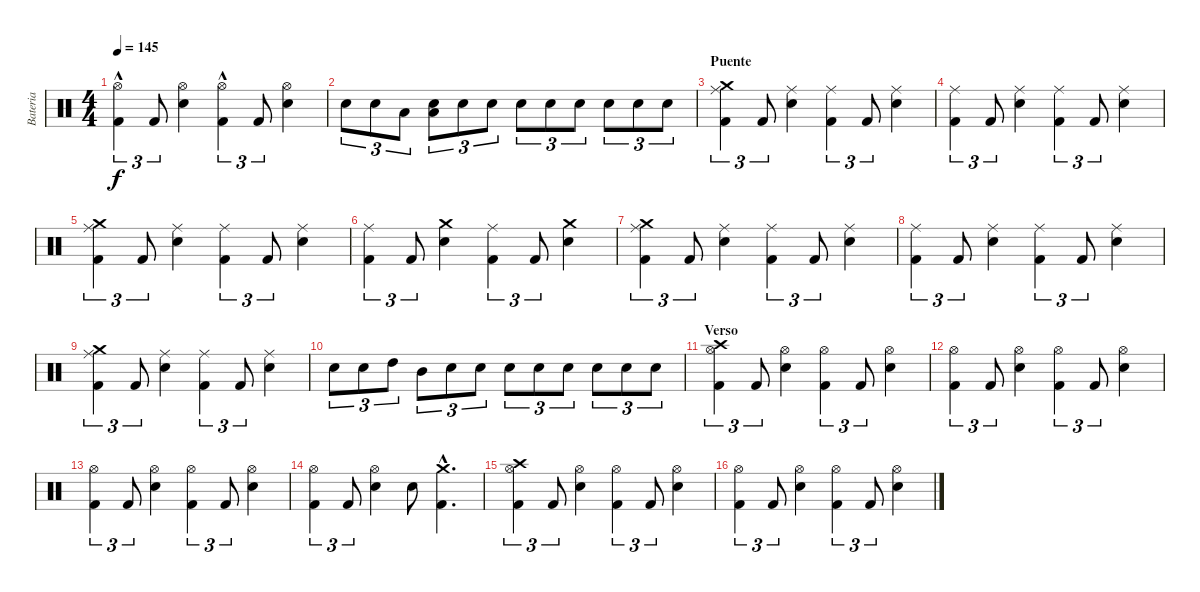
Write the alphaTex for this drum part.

\track ("Bateria" "Bateria") {instrument percussion}
\staff {score}
\articulation defaults
\ts (4 4)
\tempo 145
\clef neutral
\ks c
("Hi-Hat (open)"{hac} "Kick (hit) 2").4{tu (3 2) dy f} "Kick (hit) 2".8{tu (3 2)} ("Hi-Hat (open)" "Snare (hit) 2").4 ("Hi-Hat (open)"{hac} "Kick (hit) 2").4{tu (3 2)} "Kick (hit) 2".8{tu (3 2)} ("Hi-Hat (open)" "Snare (hit) 2").4 |
"Snare (hit) 2".8{tu (3 2)} "Snare (hit) 2".8{tu (3 2)} "Low Tom (hit)".8{tu (3 2)} ("Snare (hit) 2" "Low Tom (hit)").8{tu (3 2)} "Snare (hit) 2".8{tu (3 2)} "Snare (hit) 2".8{tu (3 2)} "Snare (hit) 2".8{tu (3 2)} "Snare (hit) 2".8{tu (3 2)} "Snare (hit) 2".8{tu (3 2)} "Snare (hit) 2".8{tu (3 2)} "Snare (hit) 2".8{tu (3 2)} "Snare (hit) 2".8{tu (3 2)} |
\section ("" "Puente")
("Kick (hit) 2" "Crash medium (hit)" "Ride (middle)").4{tu (3 2)} "Kick (hit) 2".8{tu (3 2)} ("Snare (hit) 2" "Ride (middle)").4 ("Kick (hit) 2" "Ride (middle)").4{tu (3 2)} "Kick (hit) 2".8{tu (3 2)} ("Snare (hit) 2" "Ride (middle)").4 |
("Kick (hit) 2" "Ride (middle)").4{tu (3 2)} "Kick (hit) 2".8{tu (3 2)} ("Snare (hit) 2" "Ride (middle)").4 ("Kick (hit) 2" "Ride (middle)").4{tu (3 2)} "Kick (hit) 2".8{tu (3 2)} ("Snare (hit) 2" "Ride (middle)").4 |
("Kick (hit) 2" "Crash medium (hit)" "Ride (middle)").4{tu (3 2)} "Kick (hit) 2".8{tu (3 2)} ("Snare (hit) 2" "Ride (middle)").4 ("Kick (hit) 2" "Ride (middle)").4{tu (3 2)} "Kick (hit) 2".8{tu (3 2)} ("Snare (hit) 2" "Ride (middle)").4 |
("Kick (hit) 2" "Ride (middle)").4{tu (3 2)} "Kick (hit) 2".8{tu (3 2)} ("Snare (hit) 2" "Crash medium (hit)").4 ("Kick (hit) 2" "Ride (middle)").4{tu (3 2)} "Kick (hit) 2".8{tu (3 2)} ("Snare (hit) 2" "Crash medium (hit)").4 |
("Kick (hit) 2" "Crash medium (hit)" "Ride (middle)").4{tu (3 2)} "Kick (hit) 2".8{tu (3 2)} ("Snare (hit) 2" "Ride (middle)").4 ("Kick (hit) 2" "Ride (middle)").4{tu (3 2)} "Kick (hit) 2".8{tu (3 2)} ("Snare (hit) 2" "Ride (middle)").4 |
("Kick (hit) 2" "Ride (middle)").4{tu (3 2)} "Kick (hit) 2".8{tu (3 2)} ("Snare (hit) 2" "Ride (middle)").4 ("Kick (hit) 2" "Ride (middle)").4{tu (3 2)} "Kick (hit) 2".8{tu (3 2)} ("Snare (hit) 2" "Ride (middle)").4 |
("Kick (hit) 2" "Crash medium (hit)" "Ride (middle)").4{tu (3 2)} "Kick (hit) 2".8{tu (3 2)} ("Snare (hit) 2" "Ride (middle)").4 ("Kick (hit) 2" "Ride (middle)").4{tu (3 2)} "Kick (hit) 2".8{tu (3 2)} ("Snare (hit) 2" "Ride (middle)").4 |
"Snare (hit) 2".8{tu (3 2)} "Snare (hit) 2".8{tu (3 2)} "High Tom (hit)".8{tu (3 2)} "Mid Tom (hit)".8{tu (3 2)} "Snare (hit) 2".8{tu (3 2)} "Snare (hit) 2".8{tu (3 2)} "Snare (hit) 2".8{tu (3 2)} "Snare (hit) 2".8{tu (3 2)} "Snare (hit) 2".8{tu (3 2)} "Snare (hit) 2".8{tu (3 2)} "Snare (hit) 2".8{tu (3 2)} "Snare (hit) 2".8{tu (3 2)} |
\section ("" "Verso")
("Crash high (hit)" "Hi-Hat (open)" "Kick (hit) 2").4{tu (3 2)} "Kick (hit) 2".8{tu (3 2)} ("Hi-Hat (open)" "Snare (hit) 2").4 ("Hi-Hat (open)" "Kick (hit) 2").4{tu (3 2)} "Kick (hit) 2".8{tu (3 2)} ("Hi-Hat (open)" "Snare (hit) 2").4 |
("Hi-Hat (open)" "Kick (hit) 2").4{tu (3 2)} "Kick (hit) 2".8{tu (3 2)} ("Hi-Hat (open)" "Snare (hit) 2").4 ("Hi-Hat (open)" "Kick (hit) 2").4{tu (3 2)} "Kick (hit) 2".8{tu (3 2)} ("Hi-Hat (open)" "Snare (hit) 2").4 |
("Hi-Hat (open)" "Kick (hit) 2").4{tu (3 2)} "Kick (hit) 2".8{tu (3 2)} ("Hi-Hat (open)" "Snare (hit) 2").4 ("Hi-Hat (open)" "Kick (hit) 2").4{tu (3 2)} "Kick (hit) 2".8{tu (3 2)} ("Hi-Hat (open)" "Snare (hit) 2").4 |
("Hi-Hat (open)" "Kick (hit) 2").4{tu (3 2)} "Kick (hit) 2".8{tu (3 2)} ("Hi-Hat (open)" "Snare (hit) 2").4 "Snare (hit) 2".8 ("Crash medium (hit)"{hac} "Kick (hit) 2"{hac}).4{d} |
("Crash high (hit)" "Hi-Hat (open)" "Kick (hit) 2").4{tu (3 2)} "Kick (hit) 2".8{tu (3 2)} ("Hi-Hat (open)" "Snare (hit) 2").4 ("Hi-Hat (open)" "Kick (hit) 2").4{tu (3 2)} "Kick (hit) 2".8{tu (3 2)} ("Hi-Hat (open)" "Snare (hit) 2").4 |
("Hi-Hat (open)" "Kick (hit) 2").4{tu (3 2)} "Kick (hit) 2".8{tu (3 2)} ("Hi-Hat (open)" "Snare (hit) 2").4 ("Hi-Hat (open)" "Kick (hit) 2").4{tu (3 2)} "Kick (hit) 2".8{tu (3 2)} ("Hi-Hat (open)" "Snare (hit) 2").4
